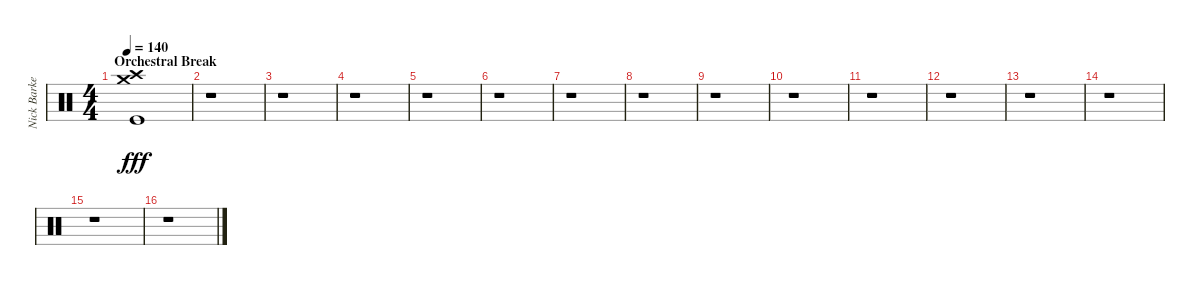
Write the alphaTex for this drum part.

\track ("Nick Barker" "Nick Barke") {instrument percussion}
\staff {score}
\articulation defaults
\ts (4 4)
\section ("" "Orchestral Break")
\tempo 140
\clef neutral
\ks c
("Crash medium (hit)" "Crash high (hit)" "Kick (hit)").1{dy fff} |
r.1 |
r.1 |
r.1 |
r.1 |
r.1 |
r.1 |
r.1 |
r.1 |
r.1 |
r.1 |
r.1 |
r.1 |
r.1 |
r.1 |
r.1
